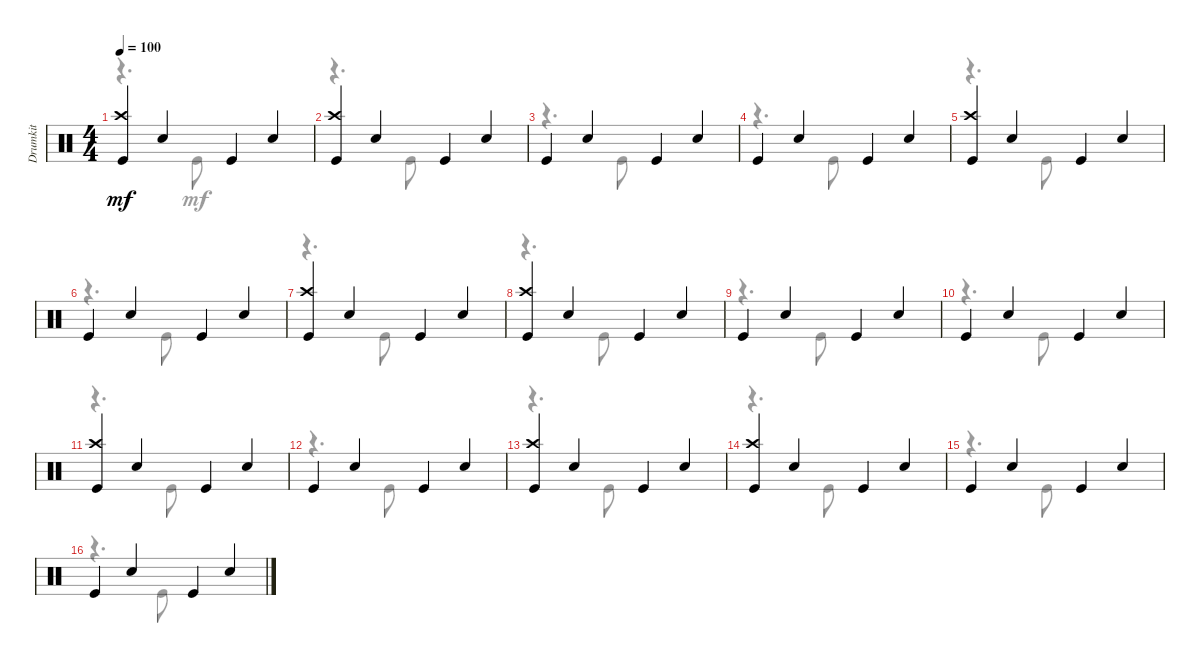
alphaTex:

\track ("Drumkit" "Drumkit") {instrument percussion}
\staff {score}
\articulation defaults
\voice
\ts (4 4)
\tempo 100
\clef neutral
\ks aminor
("Kick (hit)" "Crash high (hit)").4{dy mf} "Electric Snare (hit)".4 "Kick (hit)".4 "Electric Snare (hit)".4 |
("Crash high (hit)" "Kick (hit)").4 "Electric Snare (hit)".4 "Kick (hit)".4 "Electric Snare (hit)".4 |
"Kick (hit)".4 "Electric Snare (hit)".4 "Kick (hit)".4 "Electric Snare (hit)".4 |
"Kick (hit)".4 "Electric Snare (hit)".4 "Kick (hit)".4 "Electric Snare (hit)".4 |
("Kick (hit)" "Crash high (hit)").4 "Electric Snare (hit)".4 "Kick (hit)".4 "Electric Snare (hit)".4 |
"Kick (hit)".4 "Electric Snare (hit)".4 "Kick (hit)".4 "Electric Snare (hit)".4 |
("Kick (hit)" "Crash high (hit)").4 "Electric Snare (hit)".4 "Kick (hit)".4 "Electric Snare (hit)".4 |
("Crash high (hit)" "Kick (hit)").4 "Electric Snare (hit)".4 "Kick (hit)".4 "Electric Snare (hit)".4 |
"Kick (hit)".4 "Electric Snare (hit)".4 "Kick (hit)".4 "Electric Snare (hit)".4 |
"Kick (hit)".4 "Electric Snare (hit)".4 "Kick (hit)".4 "Electric Snare (hit)".4 |
("Kick (hit)" "Crash high (hit)").4 "Electric Snare (hit)".4 "Kick (hit)".4 "Electric Snare (hit)".4 |
"Kick (hit)".4 "Electric Snare (hit)".4 "Kick (hit)".4 "Electric Snare (hit)".4 |
("Kick (hit)" "Crash high (hit)").4 "Electric Snare (hit)".4 "Kick (hit)".4 "Electric Snare (hit)".4 |
("Kick (hit)" "Crash high (hit)").4 "Electric Snare (hit)".4 "Kick (hit)".4 "Electric Snare (hit)".4 |
"Kick (hit)".4 "Electric Snare (hit)".4 "Kick (hit)".4 "Electric Snare (hit)".4 |
"Kick (hit)".4 "Electric Snare (hit)".4 "Kick (hit)".4 "Electric Snare (hit)".4
\voice
\clef neutral
\ottava regular
\simile none
\ks aminor
r.4{d dy mf} "Kick (hit)".8 |
r.4{d} "Kick (hit)".8 |
r.4{d} "Kick (hit)".8 |
r.4{d} "Kick (hit)".8 |
r.4{d} "Kick (hit)".8 |
r.4{d} "Kick (hit)".8 |
r.4{d} "Kick (hit)".8 |
r.4{d} "Kick (hit)".8 |
r.4{d} "Kick (hit)".8 |
r.4{d} "Kick (hit)".8 |
r.4{d} "Kick (hit)".8 |
r.4{d} "Kick (hit)".8 |
r.4{d} "Kick (hit)".8 |
r.4{d} "Kick (hit)".8 |
r.4{d} "Kick (hit)".8 |
r.4{d} "Kick (hit)".8
